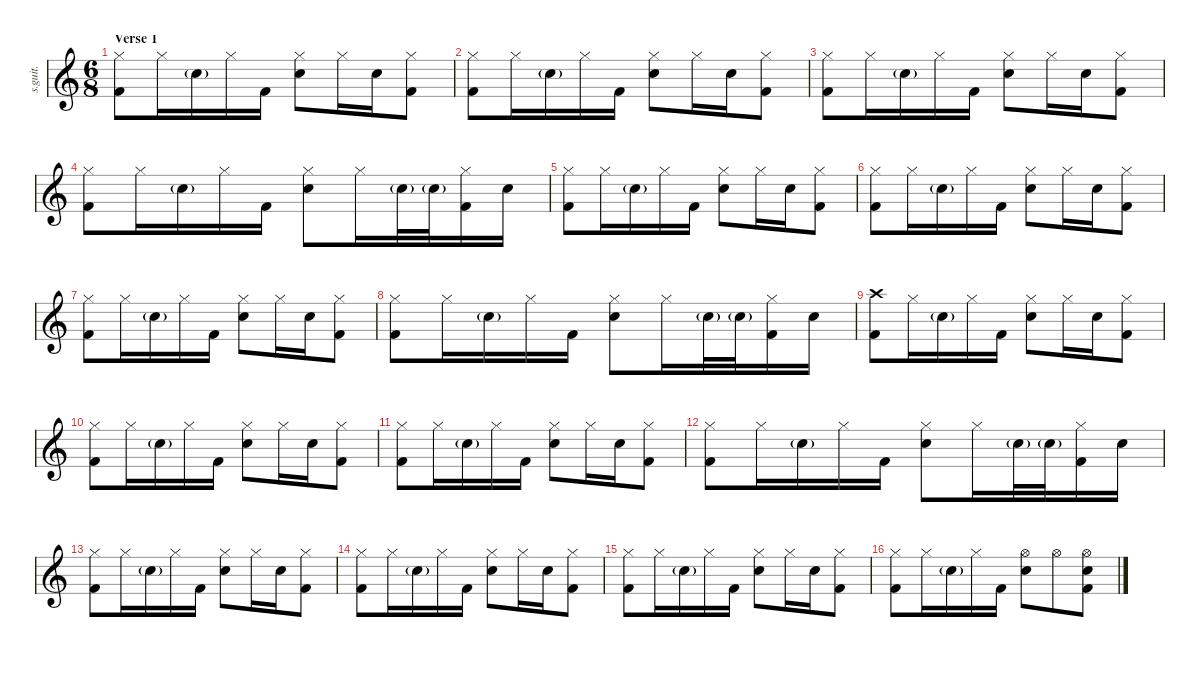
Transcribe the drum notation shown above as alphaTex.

\defaultSystemsLayout 4
\hideDynamics
\bracketExtendMode nobrackets
\track ("John Dolmayan" "s.guit.") {instrument percussion}
\staff {score}
\articulation defaults
\ts (6 8)
\section ("" "Verse 1")
\tempo (115 hide)
\clef g2
\ks c
("Hi-Hat (closed)" "Kick (hit) 2").8{lyrics (0 "") lyrics (1 "") lyrics (2 "") lyrics (3 "") lyrics (4 "") dy f} "Hi-Hat (closed)".16{lyrics (0 "") lyrics (1 "") lyrics (2 "") lyrics (3 "") lyrics (4 "")} "Snare (hit) 2"{g}.16{lyrics (0 "") lyrics (1 "") lyrics (2 "") lyrics (3 "") lyrics (4 "") dy ff} "Hi-Hat (closed)".16{lyrics (0 "") lyrics (1 "") lyrics (2 "") lyrics (3 "") lyrics (4 "") dy f} "Kick (hit) 2".16{lyrics (0 "") lyrics (1 "") lyrics (2 "") lyrics (3 "") lyrics (4 "")} ("Hi-Hat (closed)" "Snare (hit) 2").8{lyrics (0 "") lyrics (1 "") lyrics (2 "") lyrics (3 "") lyrics (4 "")} "Hi-Hat (closed)".16{lyrics (0 "") lyrics (1 "") lyrics (2 "") lyrics (3 "") lyrics (4 "")} "Snare (hit) 2".16{lyrics (0 "") lyrics (1 "") lyrics (2 "") lyrics (3 "") lyrics (4 "")} ("Hi-Hat (closed)" "Kick (hit) 2").8{lyrics (0 "") lyrics (1 "") lyrics (2 "") lyrics (3 "") lyrics (4 "")} |
("Hi-Hat (closed)" "Kick (hit) 2").8{lyrics (0 "") lyrics (1 "") lyrics (2 "") lyrics (3 "") lyrics (4 "")} "Hi-Hat (closed)".16{lyrics (0 "") lyrics (1 "") lyrics (2 "") lyrics (3 "") lyrics (4 "")} "Snare (hit) 2"{g}.16{lyrics (0 "") lyrics (1 "") lyrics (2 "") lyrics (3 "") lyrics (4 "") dy ff} "Hi-Hat (closed)".16{lyrics (0 "") lyrics (1 "") lyrics (2 "") lyrics (3 "") lyrics (4 "") dy f} "Kick (hit) 2".16{lyrics (0 "") lyrics (1 "") lyrics (2 "") lyrics (3 "") lyrics (4 "")} ("Hi-Hat (closed)" "Snare (hit) 2").8{lyrics (0 "") lyrics (1 "") lyrics (2 "") lyrics (3 "") lyrics (4 "")} "Hi-Hat (closed)".16{lyrics (0 "") lyrics (1 "") lyrics (2 "") lyrics (3 "") lyrics (4 "")} "Snare (hit) 2".16{lyrics (0 "") lyrics (1 "") lyrics (2 "") lyrics (3 "") lyrics (4 "")} ("Hi-Hat (closed)" "Kick (hit) 2").8{lyrics (0 "") lyrics (1 "") lyrics (2 "") lyrics (3 "") lyrics (4 "")} |
("Hi-Hat (closed)" "Kick (hit) 2").8{lyrics (0 "") lyrics (1 "") lyrics (2 "") lyrics (3 "") lyrics (4 "")} "Hi-Hat (closed)".16{lyrics (0 "") lyrics (1 "") lyrics (2 "") lyrics (3 "") lyrics (4 "")} "Snare (hit) 2"{g}.16{lyrics (0 "") lyrics (1 "") lyrics (2 "") lyrics (3 "") lyrics (4 "") dy ff} "Hi-Hat (closed)".16{lyrics (0 "") lyrics (1 "") lyrics (2 "") lyrics (3 "") lyrics (4 "") dy f} "Kick (hit) 2".16{lyrics (0 "") lyrics (1 "") lyrics (2 "") lyrics (3 "") lyrics (4 "")} ("Hi-Hat (closed)" "Snare (hit) 2").8{lyrics (0 "") lyrics (1 "") lyrics (2 "") lyrics (3 "") lyrics (4 "")} "Hi-Hat (closed)".16{lyrics (0 "") lyrics (1 "") lyrics (2 "") lyrics (3 "") lyrics (4 "")} "Snare (hit) 2".16{lyrics (0 "") lyrics (1 "") lyrics (2 "") lyrics (3 "") lyrics (4 "")} ("Hi-Hat (closed)" "Kick (hit) 2").8{lyrics (0 "") lyrics (1 "") lyrics (2 "") lyrics (3 "") lyrics (4 "")} |
("Hi-Hat (closed)" "Kick (hit) 2").8{lyrics (0 "") lyrics (1 "") lyrics (2 "") lyrics (3 "") lyrics (4 "")} "Hi-Hat (closed)".16{lyrics (0 "") lyrics (1 "") lyrics (2 "") lyrics (3 "") lyrics (4 "")} "Snare (hit) 2"{g}.16{lyrics (0 "") lyrics (1 "") lyrics (2 "") lyrics (3 "") lyrics (4 "") dy ff} "Hi-Hat (closed)".16{lyrics (0 "") lyrics (1 "") lyrics (2 "") lyrics (3 "") lyrics (4 "") dy f} "Kick (hit) 2".16{lyrics (0 "") lyrics (1 "") lyrics (2 "") lyrics (3 "") lyrics (4 "")} ("Hi-Hat (closed)" "Snare (hit) 2").8{lyrics (0 "") lyrics (1 "") lyrics (2 "") lyrics (3 "") lyrics (4 "")} "Hi-Hat (closed)".16{lyrics (0 "") lyrics (1 "") lyrics (2 "") lyrics (3 "") lyrics (4 "")} "Snare (hit) 2"{g}.32{lyrics (0 "") lyrics (1 "") lyrics (2 "") lyrics (3 "") lyrics (4 "") dy ff} "Snare (hit) 2"{g}.32{lyrics (0 "") lyrics (1 "") lyrics (2 "") lyrics (3 "") lyrics (4 "")} ("Hi-Hat (closed)" "Kick (hit) 2").16{lyrics (0 "") lyrics (1 "") lyrics (2 "") lyrics (3 "") lyrics (4 "") dy f} "Snare (hit) 2".16{lyrics (0 "") lyrics (1 "") lyrics (2 "") lyrics (3 "") lyrics (4 "")} |
("Hi-Hat (closed)" "Kick (hit) 2").8{lyrics (0 "") lyrics (1 "") lyrics (2 "") lyrics (3 "") lyrics (4 "")} "Hi-Hat (closed)".16{lyrics (0 "") lyrics (1 "") lyrics (2 "") lyrics (3 "") lyrics (4 "")} "Snare (hit) 2"{g}.16{lyrics (0 "") lyrics (1 "") lyrics (2 "") lyrics (3 "") lyrics (4 "") dy ff} "Hi-Hat (closed)".16{lyrics (0 "") lyrics (1 "") lyrics (2 "") lyrics (3 "") lyrics (4 "") dy f} "Kick (hit) 2".16{lyrics (0 "") lyrics (1 "") lyrics (2 "") lyrics (3 "") lyrics (4 "")} ("Hi-Hat (closed)" "Snare (hit) 2").8{lyrics (0 "") lyrics (1 "") lyrics (2 "") lyrics (3 "") lyrics (4 "")} "Hi-Hat (closed)".16{lyrics (0 "") lyrics (1 "") lyrics (2 "") lyrics (3 "") lyrics (4 "")} "Snare (hit) 2".16{lyrics (0 "") lyrics (1 "") lyrics (2 "") lyrics (3 "") lyrics (4 "")} ("Hi-Hat (closed)" "Kick (hit) 2").8{lyrics (0 "") lyrics (1 "") lyrics (2 "") lyrics (3 "") lyrics (4 "")} |
("Hi-Hat (closed)" "Kick (hit) 2").8{lyrics (0 "") lyrics (1 "") lyrics (2 "") lyrics (3 "") lyrics (4 "")} "Hi-Hat (closed)".16{lyrics (0 "") lyrics (1 "") lyrics (2 "") lyrics (3 "") lyrics (4 "")} "Snare (hit) 2"{g}.16{lyrics (0 "") lyrics (1 "") lyrics (2 "") lyrics (3 "") lyrics (4 "") dy ff} "Hi-Hat (closed)".16{lyrics (0 "") lyrics (1 "") lyrics (2 "") lyrics (3 "") lyrics (4 "") dy f} "Kick (hit) 2".16{lyrics (0 "") lyrics (1 "") lyrics (2 "") lyrics (3 "") lyrics (4 "")} ("Hi-Hat (closed)" "Snare (hit) 2").8{lyrics (0 "") lyrics (1 "") lyrics (2 "") lyrics (3 "") lyrics (4 "")} "Hi-Hat (closed)".16{lyrics (0 "") lyrics (1 "") lyrics (2 "") lyrics (3 "") lyrics (4 "")} "Snare (hit) 2".16{lyrics (0 "") lyrics (1 "") lyrics (2 "") lyrics (3 "") lyrics (4 "")} ("Hi-Hat (closed)" "Kick (hit) 2").8{lyrics (0 "") lyrics (1 "") lyrics (2 "") lyrics (3 "") lyrics (4 "")} |
("Hi-Hat (closed)" "Kick (hit) 2").8{lyrics (0 "") lyrics (1 "") lyrics (2 "") lyrics (3 "") lyrics (4 "")} "Hi-Hat (closed)".16{lyrics (0 "") lyrics (1 "") lyrics (2 "") lyrics (3 "") lyrics (4 "")} "Snare (hit) 2"{g}.16{lyrics (0 "") lyrics (1 "") lyrics (2 "") lyrics (3 "") lyrics (4 "") dy ff} "Hi-Hat (closed)".16{lyrics (0 "") lyrics (1 "") lyrics (2 "") lyrics (3 "") lyrics (4 "") dy f} "Kick (hit) 2".16{lyrics (0 "") lyrics (1 "") lyrics (2 "") lyrics (3 "") lyrics (4 "")} ("Hi-Hat (closed)" "Snare (hit) 2").8{lyrics (0 "") lyrics (1 "") lyrics (2 "") lyrics (3 "") lyrics (4 "")} "Hi-Hat (closed)".16{lyrics (0 "") lyrics (1 "") lyrics (2 "") lyrics (3 "") lyrics (4 "")} "Snare (hit) 2".16{lyrics (0 "") lyrics (1 "") lyrics (2 "") lyrics (3 "") lyrics (4 "")} ("Hi-Hat (closed)" "Kick (hit) 2").8{lyrics (0 "") lyrics (1 "") lyrics (2 "") lyrics (3 "") lyrics (4 "")} |
("Hi-Hat (closed)" "Kick (hit) 2").8{lyrics (0 "") lyrics (1 "") lyrics (2 "") lyrics (3 "") lyrics (4 "")} "Hi-Hat (closed)".16{lyrics (0 "") lyrics (1 "") lyrics (2 "") lyrics (3 "") lyrics (4 "")} "Snare (hit) 2"{g}.16{lyrics (0 "") lyrics (1 "") lyrics (2 "") lyrics (3 "") lyrics (4 "") dy ff} "Hi-Hat (closed)".16{lyrics (0 "") lyrics (1 "") lyrics (2 "") lyrics (3 "") lyrics (4 "") dy f} "Kick (hit) 2".16{lyrics (0 "") lyrics (1 "") lyrics (2 "") lyrics (3 "") lyrics (4 "")} ("Hi-Hat (closed)" "Snare (hit) 2").8{lyrics (0 "") lyrics (1 "") lyrics (2 "") lyrics (3 "") lyrics (4 "")} "Hi-Hat (closed)".16{lyrics (0 "") lyrics (1 "") lyrics (2 "") lyrics (3 "") lyrics (4 "")} "Snare (hit) 2"{g}.32{lyrics (0 "") lyrics (1 "") lyrics (2 "") lyrics (3 "") lyrics (4 "") dy ff} "Snare (hit) 2"{g}.32{lyrics (0 "") lyrics (1 "") lyrics (2 "") lyrics (3 "") lyrics (4 "")} ("Hi-Hat (closed)" "Kick (hit) 2").16{lyrics (0 "") lyrics (1 "") lyrics (2 "") lyrics (3 "") lyrics (4 "") dy f} "Snare (hit) 2".16{lyrics (0 "") lyrics (1 "") lyrics (2 "") lyrics (3 "") lyrics (4 "")} |
("Crash high (hit)" "Kick (hit) 2").8{lyrics (0 "") lyrics (1 "") lyrics (2 "") lyrics (3 "") lyrics (4 "")} "Hi-Hat (closed)".16{lyrics (0 "") lyrics (1 "") lyrics (2 "") lyrics (3 "") lyrics (4 "")} "Snare (hit) 2"{g}.16{lyrics (0 "") lyrics (1 "") lyrics (2 "") lyrics (3 "") lyrics (4 "") dy ff} "Hi-Hat (closed)".16{lyrics (0 "") lyrics (1 "") lyrics (2 "") lyrics (3 "") lyrics (4 "") dy f} "Kick (hit) 2".16{lyrics (0 "") lyrics (1 "") lyrics (2 "") lyrics (3 "") lyrics (4 "")} ("Hi-Hat (closed)" "Snare (hit) 2").8{lyrics (0 "") lyrics (1 "") lyrics (2 "") lyrics (3 "") lyrics (4 "")} "Hi-Hat (closed)".16{lyrics (0 "") lyrics (1 "") lyrics (2 "") lyrics (3 "") lyrics (4 "")} "Snare (hit) 2".16{lyrics (0 "") lyrics (1 "") lyrics (2 "") lyrics (3 "") lyrics (4 "")} ("Hi-Hat (closed)" "Kick (hit) 2").8{lyrics (0 "") lyrics (1 "") lyrics (2 "") lyrics (3 "") lyrics (4 "")} |
("Hi-Hat (closed)" "Kick (hit) 2").8{lyrics (0 "") lyrics (1 "") lyrics (2 "") lyrics (3 "") lyrics (4 "")} "Hi-Hat (closed)".16{lyrics (0 "") lyrics (1 "") lyrics (2 "") lyrics (3 "") lyrics (4 "")} "Snare (hit) 2"{g}.16{lyrics (0 "") lyrics (1 "") lyrics (2 "") lyrics (3 "") lyrics (4 "") dy ff} "Hi-Hat (closed)".16{lyrics (0 "") lyrics (1 "") lyrics (2 "") lyrics (3 "") lyrics (4 "") dy f} "Kick (hit) 2".16{lyrics (0 "") lyrics (1 "") lyrics (2 "") lyrics (3 "") lyrics (4 "")} ("Hi-Hat (closed)" "Snare (hit) 2").8{lyrics (0 "") lyrics (1 "") lyrics (2 "") lyrics (3 "") lyrics (4 "")} "Hi-Hat (closed)".16{lyrics (0 "") lyrics (1 "") lyrics (2 "") lyrics (3 "") lyrics (4 "")} "Snare (hit) 2".16{lyrics (0 "") lyrics (1 "") lyrics (2 "") lyrics (3 "") lyrics (4 "")} ("Hi-Hat (closed)" "Kick (hit) 2").8{lyrics (0 "") lyrics (1 "") lyrics (2 "") lyrics (3 "") lyrics (4 "")} |
("Hi-Hat (closed)" "Kick (hit) 2").8{lyrics (0 "") lyrics (1 "") lyrics (2 "") lyrics (3 "") lyrics (4 "")} "Hi-Hat (closed)".16{lyrics (0 "") lyrics (1 "") lyrics (2 "") lyrics (3 "") lyrics (4 "")} "Snare (hit) 2"{g}.16{lyrics (0 "") lyrics (1 "") lyrics (2 "") lyrics (3 "") lyrics (4 "") dy ff} "Hi-Hat (closed)".16{lyrics (0 "") lyrics (1 "") lyrics (2 "") lyrics (3 "") lyrics (4 "") dy f} "Kick (hit) 2".16{lyrics (0 "") lyrics (1 "") lyrics (2 "") lyrics (3 "") lyrics (4 "")} ("Hi-Hat (closed)" "Snare (hit) 2").8{lyrics (0 "") lyrics (1 "") lyrics (2 "") lyrics (3 "") lyrics (4 "")} "Hi-Hat (closed)".16{lyrics (0 "") lyrics (1 "") lyrics (2 "") lyrics (3 "") lyrics (4 "")} "Snare (hit) 2".16{lyrics (0 "") lyrics (1 "") lyrics (2 "") lyrics (3 "") lyrics (4 "")} ("Hi-Hat (closed)" "Kick (hit) 2").8{lyrics (0 "") lyrics (1 "") lyrics (2 "") lyrics (3 "") lyrics (4 "")} |
("Hi-Hat (closed)" "Kick (hit) 2").8{lyrics (0 "") lyrics (1 "") lyrics (2 "") lyrics (3 "") lyrics (4 "")} "Hi-Hat (closed)".16{lyrics (0 "") lyrics (1 "") lyrics (2 "") lyrics (3 "") lyrics (4 "")} "Snare (hit) 2"{g}.16{lyrics (0 "") lyrics (1 "") lyrics (2 "") lyrics (3 "") lyrics (4 "") dy ff} "Hi-Hat (closed)".16{lyrics (0 "") lyrics (1 "") lyrics (2 "") lyrics (3 "") lyrics (4 "") dy f} "Kick (hit) 2".16{lyrics (0 "") lyrics (1 "") lyrics (2 "") lyrics (3 "") lyrics (4 "")} ("Hi-Hat (closed)" "Snare (hit) 2").8{lyrics (0 "") lyrics (1 "") lyrics (2 "") lyrics (3 "") lyrics (4 "")} "Hi-Hat (closed)".16{lyrics (0 "") lyrics (1 "") lyrics (2 "") lyrics (3 "") lyrics (4 "")} "Snare (hit) 2"{g}.32{lyrics (0 "") lyrics (1 "") lyrics (2 "") lyrics (3 "") lyrics (4 "") dy ff} "Snare (hit) 2"{g}.32{lyrics (0 "") lyrics (1 "") lyrics (2 "") lyrics (3 "") lyrics (4 "")} ("Hi-Hat (closed)" "Kick (hit) 2").16{lyrics (0 "") lyrics (1 "") lyrics (2 "") lyrics (3 "") lyrics (4 "") dy f} "Snare (hit) 2".16{lyrics (0 "") lyrics (1 "") lyrics (2 "") lyrics (3 "") lyrics (4 "")} |
("Hi-Hat (closed)" "Kick (hit) 2").8{lyrics (0 "") lyrics (1 "") lyrics (2 "") lyrics (3 "") lyrics (4 "")} "Hi-Hat (closed)".16{lyrics (0 "") lyrics (1 "") lyrics (2 "") lyrics (3 "") lyrics (4 "")} "Snare (hit) 2"{g}.16{lyrics (0 "") lyrics (1 "") lyrics (2 "") lyrics (3 "") lyrics (4 "") dy ff} "Hi-Hat (closed)".16{lyrics (0 "") lyrics (1 "") lyrics (2 "") lyrics (3 "") lyrics (4 "") dy f} "Kick (hit) 2".16{lyrics (0 "") lyrics (1 "") lyrics (2 "") lyrics (3 "") lyrics (4 "")} ("Hi-Hat (closed)" "Snare (hit) 2").8{lyrics (0 "") lyrics (1 "") lyrics (2 "") lyrics (3 "") lyrics (4 "")} "Hi-Hat (closed)".16{lyrics (0 "") lyrics (1 "") lyrics (2 "") lyrics (3 "") lyrics (4 "")} "Snare (hit) 2".16{lyrics (0 "") lyrics (1 "") lyrics (2 "") lyrics (3 "") lyrics (4 "")} ("Hi-Hat (closed)" "Kick (hit) 2").8{lyrics (0 "") lyrics (1 "") lyrics (2 "") lyrics (3 "") lyrics (4 "")} |
("Hi-Hat (closed)" "Kick (hit) 2").8{lyrics (0 "") lyrics (1 "") lyrics (2 "") lyrics (3 "") lyrics (4 "")} "Hi-Hat (closed)".16{lyrics (0 "") lyrics (1 "") lyrics (2 "") lyrics (3 "") lyrics (4 "")} "Snare (hit) 2"{g}.16{lyrics (0 "") lyrics (1 "") lyrics (2 "") lyrics (3 "") lyrics (4 "") dy ff} "Hi-Hat (closed)".16{lyrics (0 "") lyrics (1 "") lyrics (2 "") lyrics (3 "") lyrics (4 "") dy f} "Kick (hit) 2".16{lyrics (0 "") lyrics (1 "") lyrics (2 "") lyrics (3 "") lyrics (4 "")} ("Hi-Hat (closed)" "Snare (hit) 2").8{lyrics (0 "") lyrics (1 "") lyrics (2 "") lyrics (3 "") lyrics (4 "")} "Hi-Hat (closed)".16{lyrics (0 "") lyrics (1 "") lyrics (2 "") lyrics (3 "") lyrics (4 "")} "Snare (hit) 2".16{lyrics (0 "") lyrics (1 "") lyrics (2 "") lyrics (3 "") lyrics (4 "")} ("Hi-Hat (closed)" "Kick (hit) 2").8{lyrics (0 "") lyrics (1 "") lyrics (2 "") lyrics (3 "") lyrics (4 "")} |
("Hi-Hat (closed)" "Kick (hit) 2").8{lyrics (0 "") lyrics (1 "") lyrics (2 "") lyrics (3 "") lyrics (4 "")} "Hi-Hat (closed)".16{lyrics (0 "") lyrics (1 "") lyrics (2 "") lyrics (3 "") lyrics (4 "")} "Snare (hit) 2"{g}.16{lyrics (0 "") lyrics (1 "") lyrics (2 "") lyrics (3 "") lyrics (4 "") dy ff} "Hi-Hat (closed)".16{lyrics (0 "") lyrics (1 "") lyrics (2 "") lyrics (3 "") lyrics (4 "") dy f} "Kick (hit) 2".16{lyrics (0 "") lyrics (1 "") lyrics (2 "") lyrics (3 "") lyrics (4 "")} ("Hi-Hat (closed)" "Snare (hit) 2").8{lyrics (0 "") lyrics (1 "") lyrics (2 "") lyrics (3 "") lyrics (4 "")} "Hi-Hat (closed)".16{lyrics (0 "") lyrics (1 "") lyrics (2 "") lyrics (3 "") lyrics (4 "")} "Snare (hit) 2".16{lyrics (0 "") lyrics (1 "") lyrics (2 "") lyrics (3 "") lyrics (4 "")} ("Hi-Hat (closed)" "Kick (hit) 2").8{lyrics (0 "") lyrics (1 "") lyrics (2 "") lyrics (3 "") lyrics (4 "")} |
("Hi-Hat (closed)" "Kick (hit) 2").8{lyrics (0 "") lyrics (1 "") lyrics (2 "") lyrics (3 "") lyrics (4 "")} "Hi-Hat (closed)".16{lyrics (0 "") lyrics (1 "") lyrics (2 "") lyrics (3 "") lyrics (4 "")} "Snare (hit) 2"{g}.16{lyrics (0 "") lyrics (1 "") lyrics (2 "") lyrics (3 "") lyrics (4 "") dy ff} "Hi-Hat (closed)".16{lyrics (0 "") lyrics (1 "") lyrics (2 "") lyrics (3 "") lyrics (4 "") dy f} "Kick (hit) 2".16{lyrics (0 "") lyrics (1 "") lyrics (2 "") lyrics (3 "") lyrics (4 "")} ("Hi-Hat (open)" "Snare (hit) 2").8{lyrics (0 "") lyrics (1 "") lyrics (2 "") lyrics (3 "") lyrics (4 "")} "Hi-Hat (open)".8{lyrics (0 "") lyrics (1 "") lyrics (2 "") lyrics (3 "") lyrics (4 "")} ("Hi-Hat (open)" "Snare (hit) 2" "Kick (hit) 2").8{lyrics (0 "") lyrics (1 "") lyrics (2 "") lyrics (3 "") lyrics (4 "")}
